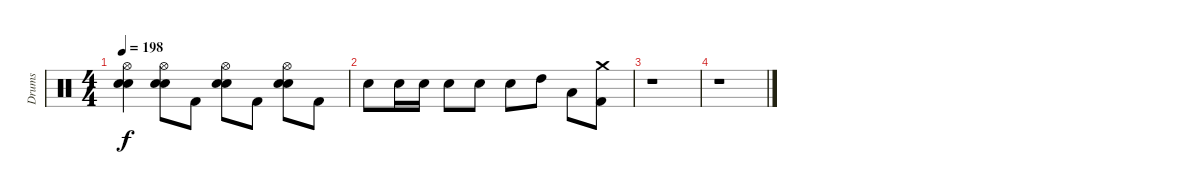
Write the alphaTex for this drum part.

\track ("Drums" "Drums") {instrument percussion}
\staff {score}
\articulation defaults
\ts (4 4)
\tempo 198
\clef neutral
\ks c
("Hi-Hat (open)" "Electric Snare (hit)" "Snare (hit) 2").4{dy f} ("Hi-Hat (open)" "Electric Snare (hit)" "Snare (hit) 2").8 "Kick (hit) 2".8 ("Hi-Hat (open)" "Electric Snare (hit)" "Snare (hit) 2").8 "Kick (hit) 2".8 ("Hi-Hat (open)" "Electric Snare (hit)" "Snare (hit) 2").8 "Kick (hit) 2".8 |
"Snare (hit) 2".8 "Electric Snare (hit)".16 "Electric Snare (hit)".16 "Electric Snare (hit)".8 "Electric Snare (hit)".8 "Electric Snare (hit)".8 "High Tom (hit)".8 "Low Floor Tom (hit)".8 ("Crash medium (hit)" "Kick (hit) 2").8 |
r.1 |
r.1
